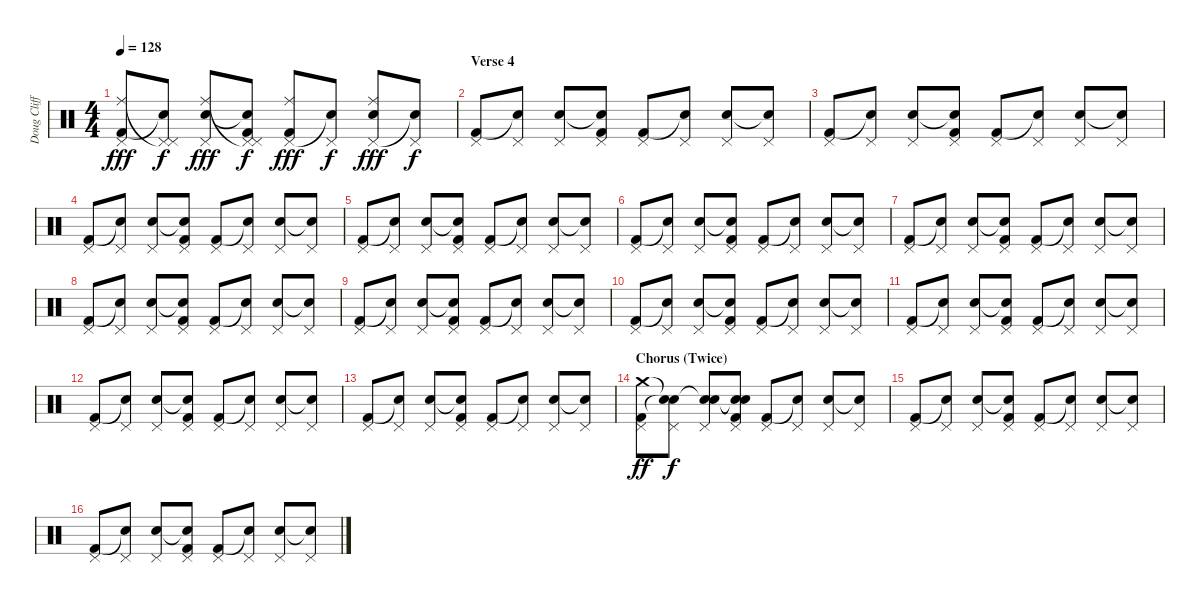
\track ("Doug Clifford" "Doug Cliff") {instrument percussion}
\staff {score}
\articulation defaults
\ts (4 4)
\tempo 128
\clef neutral
\ks c
("Ride (middle)" "Pedal Hi-Hat (hit)" "Kick (hit) 2").8{dy fff} ("Pedal Hi-Hat (hit)"{t} "Pedal Hi-Hat (hit)" "Snare (hit)"{t}).8{dy f} ("Ride (middle)" "Pedal Hi-Hat (hit)" "Snare (hit) 2").8{dy fff} ("Pedal Hi-Hat (hit)"{t} "Pedal Hi-Hat (hit)" "Snare (hit)"{t} "Kick (hit) 2").8{dy f} ("Ride (middle)" "Pedal Hi-Hat (hit)" "Kick (hit) 2").8{dy fff} ("Pedal Hi-Hat (hit)" "Snare (hit)"{t}).8{dy f} ("Ride (middle)" "Pedal Hi-Hat (hit)" "Snare (hit) 2").8{dy fff} ("Pedal Hi-Hat (hit)" "Snare (hit)"{t}).8{dy f} |
\section ("" "Verse 4")
("Pedal Hi-Hat (hit)" "Kick (hit) 2").8 ("Pedal Hi-Hat (hit)" "Snare (hit)"{t}).8 ("Pedal Hi-Hat (hit)" "Snare (hit) 2").8 ("Pedal Hi-Hat (hit)" "Snare (hit)"{t} "Kick (hit) 2").8 ("Pedal Hi-Hat (hit)" "Kick (hit) 2").8 ("Pedal Hi-Hat (hit)" "Snare (hit)"{t}).8 ("Pedal Hi-Hat (hit)" "Snare (hit) 2").8 ("Pedal Hi-Hat (hit)" "Snare (hit)"{t}).8 |
("Pedal Hi-Hat (hit)" "Kick (hit) 2").8 ("Pedal Hi-Hat (hit)" "Snare (hit)"{t}).8 ("Pedal Hi-Hat (hit)" "Snare (hit) 2").8 ("Pedal Hi-Hat (hit)" "Snare (hit)"{t} "Kick (hit) 2").8 ("Pedal Hi-Hat (hit)" "Kick (hit) 2").8 ("Pedal Hi-Hat (hit)" "Snare (hit)"{t}).8 ("Pedal Hi-Hat (hit)" "Snare (hit) 2").8 ("Pedal Hi-Hat (hit)" "Snare (hit)"{t}).8 |
("Pedal Hi-Hat (hit)" "Kick (hit) 2").8 ("Pedal Hi-Hat (hit)" "Snare (hit)"{t}).8 ("Pedal Hi-Hat (hit)" "Snare (hit) 2").8 ("Pedal Hi-Hat (hit)" "Snare (hit)"{t} "Kick (hit) 2").8 ("Pedal Hi-Hat (hit)" "Kick (hit) 2").8 ("Pedal Hi-Hat (hit)" "Snare (hit)"{t}).8 ("Pedal Hi-Hat (hit)" "Snare (hit) 2").8 ("Pedal Hi-Hat (hit)" "Snare (hit)"{t}).8 |
("Pedal Hi-Hat (hit)" "Kick (hit) 2").8 ("Pedal Hi-Hat (hit)" "Snare (hit)"{t}).8 ("Pedal Hi-Hat (hit)" "Snare (hit) 2").8 ("Pedal Hi-Hat (hit)" "Snare (hit)"{t} "Kick (hit) 2").8 ("Pedal Hi-Hat (hit)" "Kick (hit) 2").8 ("Pedal Hi-Hat (hit)" "Snare (hit)"{t}).8 ("Pedal Hi-Hat (hit)" "Snare (hit) 2").8 ("Pedal Hi-Hat (hit)" "Snare (hit)"{t}).8 |
("Pedal Hi-Hat (hit)" "Kick (hit) 2").8 ("Pedal Hi-Hat (hit)" "Snare (hit)"{t}).8 ("Pedal Hi-Hat (hit)" "Snare (hit) 2").8 ("Pedal Hi-Hat (hit)" "Snare (hit)"{t} "Kick (hit) 2").8 ("Pedal Hi-Hat (hit)" "Kick (hit) 2").8 ("Pedal Hi-Hat (hit)" "Snare (hit)"{t}).8 ("Pedal Hi-Hat (hit)" "Snare (hit) 2").8 ("Pedal Hi-Hat (hit)" "Snare (hit)"{t}).8 |
("Pedal Hi-Hat (hit)" "Kick (hit) 2").8 ("Pedal Hi-Hat (hit)" "Snare (hit)"{t}).8 ("Pedal Hi-Hat (hit)" "Snare (hit) 2").8 ("Pedal Hi-Hat (hit)" "Snare (hit)"{t} "Kick (hit) 2").8 ("Pedal Hi-Hat (hit)" "Kick (hit) 2").8 ("Pedal Hi-Hat (hit)" "Snare (hit)"{t}).8 ("Pedal Hi-Hat (hit)" "Snare (hit) 2").8 ("Pedal Hi-Hat (hit)" "Snare (hit)"{t}).8 |
("Pedal Hi-Hat (hit)" "Kick (hit) 2").8 ("Pedal Hi-Hat (hit)" "Snare (hit)"{t}).8 ("Pedal Hi-Hat (hit)" "Snare (hit) 2").8 ("Pedal Hi-Hat (hit)" "Snare (hit)"{t} "Kick (hit) 2").8 ("Pedal Hi-Hat (hit)" "Kick (hit) 2").8 ("Pedal Hi-Hat (hit)" "Snare (hit)"{t}).8 ("Pedal Hi-Hat (hit)" "Snare (hit) 2").8 ("Pedal Hi-Hat (hit)" "Snare (hit)"{t}).8 |
("Pedal Hi-Hat (hit)" "Kick (hit) 2").8 ("Pedal Hi-Hat (hit)" "Snare (hit)"{t}).8 ("Pedal Hi-Hat (hit)" "Snare (hit) 2").8 ("Pedal Hi-Hat (hit)" "Snare (hit)"{t} "Kick (hit) 2").8 ("Pedal Hi-Hat (hit)" "Kick (hit) 2").8 ("Pedal Hi-Hat (hit)" "Snare (hit)"{t}).8 ("Pedal Hi-Hat (hit)" "Snare (hit) 2").8 ("Pedal Hi-Hat (hit)" "Snare (hit)"{t}).8 |
("Pedal Hi-Hat (hit)" "Kick (hit) 2").8 ("Pedal Hi-Hat (hit)" "Snare (hit)"{t}).8 ("Pedal Hi-Hat (hit)" "Snare (hit) 2").8 ("Pedal Hi-Hat (hit)" "Snare (hit)"{t} "Kick (hit) 2").8 ("Pedal Hi-Hat (hit)" "Kick (hit) 2").8 ("Pedal Hi-Hat (hit)" "Snare (hit)"{t}).8 ("Pedal Hi-Hat (hit)" "Snare (hit) 2").8 ("Pedal Hi-Hat (hit)" "Snare (hit)"{t}).8 |
("Pedal Hi-Hat (hit)" "Kick (hit) 2").8 ("Pedal Hi-Hat (hit)" "Snare (hit)"{t}).8 ("Pedal Hi-Hat (hit)" "Snare (hit) 2").8 ("Pedal Hi-Hat (hit)" "Snare (hit)"{t} "Kick (hit) 2").8 ("Pedal Hi-Hat (hit)" "Kick (hit) 2").8 ("Pedal Hi-Hat (hit)" "Snare (hit)"{t}).8 ("Pedal Hi-Hat (hit)" "Snare (hit) 2").8 ("Pedal Hi-Hat (hit)" "Snare (hit)"{t}).8 |
("Pedal Hi-Hat (hit)" "Kick (hit) 2").8 ("Pedal Hi-Hat (hit)" "Snare (hit)"{t}).8 ("Pedal Hi-Hat (hit)" "Snare (hit) 2").8 ("Pedal Hi-Hat (hit)" "Snare (hit)"{t} "Kick (hit) 2").8 ("Pedal Hi-Hat (hit)" "Kick (hit) 2").8 ("Pedal Hi-Hat (hit)" "Snare (hit)"{t}).8 ("Pedal Hi-Hat (hit)" "Snare (hit) 2").8 ("Pedal Hi-Hat (hit)" "Snare (hit)"{t}).8 |
("Pedal Hi-Hat (hit)" "Kick (hit) 2").8 ("Pedal Hi-Hat (hit)" "Snare (hit)"{t}).8 ("Pedal Hi-Hat (hit)" "Snare (hit) 2").8 ("Pedal Hi-Hat (hit)" "Snare (hit)"{t} "Kick (hit) 2").8 ("Pedal Hi-Hat (hit)" "Kick (hit) 2").8 ("Pedal Hi-Hat (hit)" "Snare (hit)"{t}).8 ("Pedal Hi-Hat (hit)" "Snare (hit) 2").8 ("Pedal Hi-Hat (hit)" "Snare (hit)"{t}).8 |
\section ("" "Chorus (Twice)")
("Crash medium (hit)" "Pedal Hi-Hat (hit)" "Kick (hit) 2").8{dy ff} ("Snare (hit)"{t} "Pedal Hi-Hat (hit)" "Snare (hit)"{t}).8{dy f} ("Snare (hit)"{t} "Pedal Hi-Hat (hit)" "Snare (hit) 2").8 ("Snare (hit)"{t} "Pedal Hi-Hat (hit)" "Snare (hit)"{t} "Kick (hit) 2").8 ("Pedal Hi-Hat (hit)" "Kick (hit) 2").8 ("Pedal Hi-Hat (hit)" "Snare (hit)"{t}).8 ("Pedal Hi-Hat (hit)" "Snare (hit) 2").8 ("Pedal Hi-Hat (hit)" "Snare (hit)"{t}).8 |
("Pedal Hi-Hat (hit)" "Kick (hit) 2").8 ("Pedal Hi-Hat (hit)" "Snare (hit)"{t}).8 ("Pedal Hi-Hat (hit)" "Snare (hit) 2").8 ("Pedal Hi-Hat (hit)" "Snare (hit)"{t} "Kick (hit) 2").8 ("Pedal Hi-Hat (hit)" "Kick (hit) 2").8 ("Pedal Hi-Hat (hit)" "Snare (hit)"{t}).8 ("Pedal Hi-Hat (hit)" "Snare (hit) 2").8 ("Pedal Hi-Hat (hit)" "Snare (hit)"{t}).8 |
("Pedal Hi-Hat (hit)" "Kick (hit) 2").8 ("Pedal Hi-Hat (hit)" "Snare (hit)"{t}).8 ("Pedal Hi-Hat (hit)" "Snare (hit) 2").8 ("Pedal Hi-Hat (hit)" "Snare (hit)"{t} "Kick (hit) 2").8 ("Pedal Hi-Hat (hit)" "Kick (hit) 2").8 ("Pedal Hi-Hat (hit)" "Snare (hit)"{t}).8 ("Pedal Hi-Hat (hit)" "Snare (hit) 2").8 ("Pedal Hi-Hat (hit)" "Snare (hit)"{t}).8
